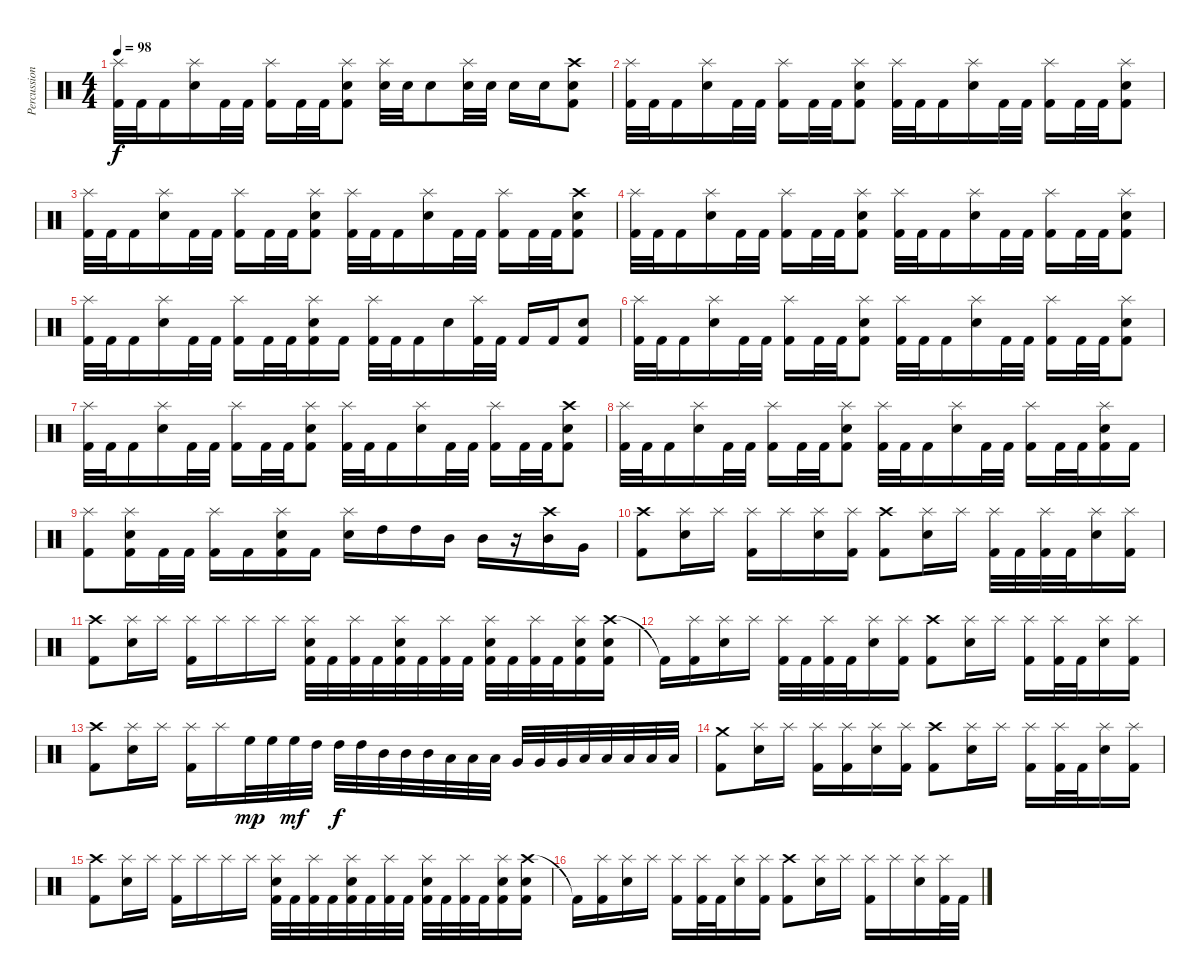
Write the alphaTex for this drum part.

\track ("Percussion" "Percussion") {instrument percussion}
\staff {score}
\articulation defaults
\ts (4 4)
\tempo 98
\clef neutral
\ks c
("Splash (hit)" "Kick (hit) 2").32{dy f} "Kick (hit) 2".32 "Kick (hit) 2".16 ("Splash (hit)" "Snare (hit) 2").16 "Kick (hit) 2".32 "Kick (hit) 2".32 ("Splash (hit)" "Kick (hit) 2").16 "Kick (hit) 2".32 "Kick (hit) 2".32 ("Splash (hit)" "Snare (hit) 2" "Kick (hit) 2").8 ("Splash (hit)" "Snare (hit) 2").32 "Snare (hit) 2".32 "Snare (hit) 2".8 ("Splash (hit)" "Snare (hit) 2").32 "Snare (hit) 2".32 "Snare (hit) 2".16 "Snare (hit) 2".16 ("Crash high (hit)" "Snare (hit) 2" "Kick (hit) 2").8 |
("Splash (hit)" "Kick (hit) 2").32 "Kick (hit) 2".32 "Kick (hit) 2".16 ("Splash (hit)" "Snare (hit) 2").16 "Kick (hit) 2".32 "Kick (hit) 2".32 ("Splash (hit)" "Kick (hit) 2").16 "Kick (hit) 2".32 "Kick (hit) 2".32 ("Splash (hit)" "Snare (hit) 2" "Kick (hit) 2").8 ("Splash (hit)" "Kick (hit) 2").32 "Kick (hit) 2".32 "Kick (hit) 2".16 ("Splash (hit)" "Snare (hit) 2").16 "Kick (hit) 2".32 "Kick (hit) 2".32 ("Splash (hit)" "Kick (hit) 2").16 "Kick (hit) 2".32 "Kick (hit) 2".32 ("Splash (hit)" "Snare (hit) 2" "Kick (hit) 2").8 |
("Splash (hit)" "Kick (hit) 2").32 "Kick (hit) 2".32 "Kick (hit) 2".16 ("Splash (hit)" "Snare (hit) 2").16 "Kick (hit) 2".32 "Kick (hit) 2".32 ("Splash (hit)" "Kick (hit) 2").16 "Kick (hit) 2".32 "Kick (hit) 2".32 ("Splash (hit)" "Snare (hit) 2" "Kick (hit) 2").8 ("Splash (hit)" "Kick (hit) 2").32 "Kick (hit) 2".32 "Kick (hit) 2".16 ("Splash (hit)" "Snare (hit) 2").16 "Kick (hit) 2".32 "Kick (hit) 2".32 ("Splash (hit)" "Kick (hit) 2").16 "Kick (hit) 2".32 "Kick (hit) 2".32 ("Crash high (hit)" "Snare (hit) 2" "Kick (hit) 2").8 |
("Splash (hit)" "Kick (hit) 2").32 "Kick (hit) 2".32 "Kick (hit) 2".16 ("Splash (hit)" "Snare (hit) 2").16 "Kick (hit) 2".32 "Kick (hit) 2".32 ("Splash (hit)" "Kick (hit) 2").16 "Kick (hit) 2".32 "Kick (hit) 2".32 ("Splash (hit)" "Snare (hit) 2" "Kick (hit) 2").8 ("Splash (hit)" "Kick (hit) 2").32 "Kick (hit) 2".32 "Kick (hit) 2".16 ("Splash (hit)" "Snare (hit) 2").16 "Kick (hit) 2".32 "Kick (hit) 2".32 ("Splash (hit)" "Kick (hit) 2").16 "Kick (hit) 2".32 "Kick (hit) 2".32 ("Splash (hit)" "Snare (hit) 2" "Kick (hit) 2").8 |
("Splash (hit)" "Kick (hit) 2").32 "Kick (hit) 2".32 "Kick (hit) 2".16 ("Splash (hit)" "Snare (hit) 2").16 "Kick (hit) 2".32 "Kick (hit) 2".32 ("Splash (hit)" "Kick (hit) 2").16 "Kick (hit) 2".32 "Kick (hit) 2".32 ("Splash (hit)" "Snare (hit) 2" "Kick (hit) 2").16 "Kick (hit) 2".16 ("Splash (hit)" "Kick (hit) 2").32 "Kick (hit) 2".32 "Kick (hit) 2".16 "Snare (hit) 2".16 ("Splash (hit)" "Kick (hit) 2").32 "Kick (hit) 2".32 "Kick (hit) 2".16 "Kick (hit) 2".16 ("Snare (hit) 2" "Kick (hit) 2").8 |
("Splash (hit)" "Kick (hit) 2").32 "Kick (hit) 2".32 "Kick (hit) 2".16 ("Splash (hit)" "Snare (hit) 2").16 "Kick (hit) 2".32 "Kick (hit) 2".32 ("Splash (hit)" "Kick (hit) 2").16 "Kick (hit) 2".32 "Kick (hit) 2".32 ("Splash (hit)" "Snare (hit) 2" "Kick (hit) 2").8 ("Splash (hit)" "Kick (hit) 2").32 "Kick (hit) 2".32 "Kick (hit) 2".16 ("Splash (hit)" "Snare (hit) 2").16 "Kick (hit) 2".32 "Kick (hit) 2".32 ("Splash (hit)" "Kick (hit) 2").16 "Kick (hit) 2".32 "Kick (hit) 2".32 ("Splash (hit)" "Snare (hit) 2" "Kick (hit) 2").8 |
("Splash (hit)" "Kick (hit) 2").32 "Kick (hit) 2".32 "Kick (hit) 2".16 ("Splash (hit)" "Snare (hit) 2").16 "Kick (hit) 2".32 "Kick (hit) 2".32 ("Splash (hit)" "Kick (hit) 2").16 "Kick (hit) 2".32 "Kick (hit) 2".32 ("Splash (hit)" "Snare (hit) 2" "Kick (hit) 2").8 ("Splash (hit)" "Kick (hit) 2").32 "Kick (hit) 2".32 "Kick (hit) 2".16 ("Splash (hit)" "Snare (hit) 2").16 "Kick (hit) 2".32 "Kick (hit) 2".32 ("Splash (hit)" "Kick (hit) 2").16 "Kick (hit) 2".32 "Kick (hit) 2".32 ("Crash high (hit)" "Snare (hit) 2" "Kick (hit) 2").8 |
("Splash (hit)" "Kick (hit) 2").32 "Kick (hit) 2".32 "Kick (hit) 2".16 ("Splash (hit)" "Snare (hit) 2").16 "Kick (hit) 2".32 "Kick (hit) 2".32 ("Splash (hit)" "Kick (hit) 2").16 "Kick (hit) 2".32 "Kick (hit) 2".32 ("Splash (hit)" "Snare (hit) 2" "Kick (hit) 2").8 ("Splash (hit)" "Kick (hit) 2").32 "Kick (hit) 2".32 "Kick (hit) 2".16 ("Splash (hit)" "Snare (hit) 2").16 "Kick (hit) 2".32 "Kick (hit) 2".32 ("Splash (hit)" "Kick (hit) 2").16 "Kick (hit) 2".32 "Kick (hit) 2".32 ("Splash (hit)" "Snare (hit) 2" "Kick (hit) 2").16 "Kick (hit) 2".16 |
("Splash (hit)" "Kick (hit) 2").8 ("Splash (hit)" "Snare (hit) 2" "Kick (hit) 2").16 "Kick (hit) 2".32 "Kick (hit) 2".32 ("Splash (hit)" "Kick (hit) 2").16 "Kick (hit) 2".16 ("Splash (hit)" "Snare (hit) 2" "Kick (hit) 2").16 "Kick (hit) 2".16 ("Splash (hit)" "Snare (hit) 2").16 "High Tom (hit)".16 "High Tom (hit)".16 "Mid Tom (hit)".16 "Mid Tom (hit)".16 r.16 ("Crash high (hit)" "Mid Tom (hit)").16 "Very Low Tom (hit)".16 |
("Crash high (hit)" "Kick (hit) 2").8 ("Splash (hit)" "Snare (hit) 2").16 "Splash (hit)".16 ("Splash (hit)" "Kick (hit) 2").16 "Splash (hit)".16 ("Splash (hit)" "Snare (hit) 2").16 ("Splash (hit)" "Kick (hit) 2").16 ("Crash high (hit)" "Kick (hit) 2").8 ("Splash (hit)" "Snare (hit) 2").16 "Splash (hit)".16 ("Splash (hit)" "Kick (hit) 2").32 "Kick (hit) 2".32 ("Splash (hit)" "Kick (hit) 2").32 "Kick (hit) 2".32 ("Splash (hit)" "Snare (hit) 2").16 ("Splash (hit)" "Kick (hit) 2").16 |
("Crash high (hit)" "Kick (hit) 2").8 ("Splash (hit)" "Snare (hit) 2").16 "Splash (hit)".16 ("Splash (hit)" "Kick (hit) 2").16 "Splash (hit)".16 "Splash (hit)".16 "Splash (hit)".16 ("Splash (hit)" "Snare (hit) 2" "Kick (hit) 2").32 "Kick (hit) 2".32 ("Splash (hit)" "Kick (hit) 2").32 "Kick (hit) 2".32 ("Splash (hit)" "Snare (hit) 2" "Kick (hit) 2").32 "Kick (hit) 2".32 ("Splash (hit)" "Kick (hit) 2").32 "Kick (hit) 2".32 ("Splash (hit)" "Snare (hit) 2" "Kick (hit) 2").32 "Kick (hit) 2".32 ("Splash (hit)" "Kick (hit) 2").32 "Kick (hit) 2".32 ("Splash (hit)" "Snare (hit) 2" "Kick (hit) 2").16 ("Crash high (hit)" "Snare (hit) 2" "Kick (hit) 2").16 |
"Kick (hit) 2"{t}.16 ("Splash (hit)" "Kick (hit) 2").16 ("Splash (hit)" "Snare (hit) 2").16 "Splash (hit)".16 ("Splash (hit)" "Kick (hit) 2").32 "Kick (hit) 2".32 ("Splash (hit)" "Kick (hit) 2").32 "Kick (hit) 2".32 ("Splash (hit)" "Snare (hit) 2").16 ("Splash (hit)" "Kick (hit) 2").16 ("Crash high (hit)" "Kick (hit) 2").8 ("Splash (hit)" "Snare (hit) 2").16 "Splash (hit)".16 ("Splash (hit)" "Kick (hit) 2").16 ("Splash (hit)" "Kick (hit) 2").32 "Kick (hit) 2".32 ("Splash (hit)" "Snare (hit) 2").16 ("Splash (hit)" "Kick (hit) 2").16 |
("Crash high (hit)" "Kick (hit) 2").8 ("Splash (hit)" "Snare (hit) 2").16 "Splash (hit)".16 ("Splash (hit)" "Kick (hit) 2").16 "Splash (hit)".16 "High Floor Tom (hit)".32{dy mp} "High Floor Tom (hit)".32 "High Floor Tom (hit)".32{dy mf} "High Tom (hit)".32 "High Tom (hit)".32{dy f} "High Tom (hit)".32 "Mid Tom (hit)".32 "Mid Tom (hit)".32 "Mid Tom (hit)".32 "Low Tom (hit)".32 "Low Tom (hit)".32 "Low Tom (hit)".32 "Very Low Tom (hit)".32 "Very Low Tom (hit)".32 "Very Low Tom (hit)".32 "Low Floor Tom (hit)".32 "Low Floor Tom (hit)".32 "Low Floor Tom (hit)".32 "Low Floor Tom (hit)".32 "Low Floor Tom (hit)".32 |
("Crash medium (hit)" "Kick (hit) 2").8 ("Splash (hit)" "Snare (hit) 2").16 "Splash (hit)".16 ("Splash (hit)" "Kick (hit) 2").16 ("Splash (hit)" "Kick (hit) 2").16 ("Splash (hit)" "Snare (hit) 2").16 ("Splash (hit)" "Kick (hit) 2").16 ("Crash high (hit)" "Kick (hit) 2").8 ("Splash (hit)" "Snare (hit) 2").16 "Splash (hit)".16 ("Splash (hit)" "Kick (hit) 2").16 ("Splash (hit)" "Kick (hit) 2").32 "Kick (hit) 2".32 ("Splash (hit)" "Snare (hit) 2").16 ("Splash (hit)" "Kick (hit) 2").16 |
("Crash high (hit)" "Kick (hit) 2").8 ("Splash (hit)" "Snare (hit) 2").16 "Splash (hit)".16 ("Splash (hit)" "Kick (hit) 2").16 "Splash (hit)".16 "Splash (hit)".16 "Splash (hit)".16 ("Splash (hit)" "Snare (hit) 2" "Kick (hit) 2").32 "Kick (hit) 2".32 ("Splash (hit)" "Kick (hit) 2").32 "Kick (hit) 2".32 ("Splash (hit)" "Snare (hit) 2" "Kick (hit) 2").32 "Kick (hit) 2".32 ("Splash (hit)" "Kick (hit) 2").32 "Kick (hit) 2".32 ("Splash (hit)" "Snare (hit) 2" "Kick (hit) 2").32 "Kick (hit) 2".32 ("Splash (hit)" "Kick (hit) 2").32 "Kick (hit) 2".32 ("Splash (hit)" "Snare (hit) 2" "Kick (hit) 2").16 ("Crash high (hit)" "Snare (hit) 2" "Kick (hit) 2").16 |
"Kick (hit) 2"{t}.16 ("Splash (hit)" "Kick (hit) 2").16 ("Splash (hit)" "Snare (hit) 2").16 "Splash (hit)".16 ("Splash (hit)" "Kick (hit) 2").16 ("Splash (hit)" "Kick (hit) 2").32 "Kick (hit) 2".32 ("Splash (hit)" "Snare (hit) 2").16 ("Splash (hit)" "Kick (hit) 2").16 ("Crash high (hit)" "Kick (hit) 2").8 ("Splash (hit)" "Snare (hit) 2").16 "Splash (hit)".16 ("Splash (hit)" "Kick (hit) 2").16 "Splash (hit)".16 ("Splash (hit)" "Snare (hit) 2").16 ("Splash (hit)" "Kick (hit) 2").32 "Kick (hit) 2".32
